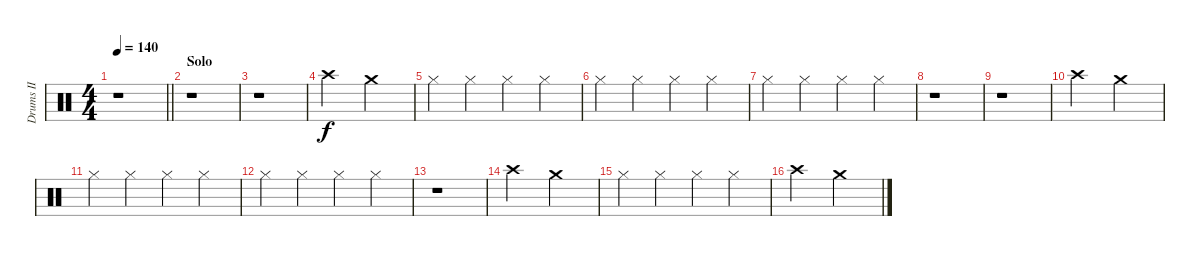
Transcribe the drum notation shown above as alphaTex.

\track ("Drums II" "Drums II") {instrument percussion}
\staff {score}
\articulation defaults
\ts (4 4)
\tempo 140
\clef neutral
\barLineRight lightlight
\ks c
r.1{dy f} |
\section ("" "Solo")
r.1 |
r.1 |
"Crash high (hit)".2 "Crash medium (hit)".2 |
"Hi-Hat (closed)".4 "Hi-Hat (closed)".4 "Hi-Hat (closed)".4 "Hi-Hat (closed)".4 |
"Hi-Hat (closed)".4 "Hi-Hat (closed)".4 "Hi-Hat (closed)".4 "Hi-Hat (closed)".4 |
"Hi-Hat (closed)".4 "Hi-Hat (closed)".4 "Hi-Hat (closed)".4 "Hi-Hat (closed)".4 |
r.1 |
r.1 |
"Crash high (hit)".2 "Crash medium (hit)".2 |
"Hi-Hat (closed)".4 "Hi-Hat (closed)".4 "Hi-Hat (closed)".4 "Hi-Hat (closed)".4 |
"Hi-Hat (closed)".4 "Hi-Hat (closed)".4 "Hi-Hat (closed)".4 "Hi-Hat (closed)".4 |
r.1 |
"Crash high (hit)".2 "Crash medium (hit)".2 |
"Hi-Hat (closed)".4 "Hi-Hat (closed)".4 "Hi-Hat (closed)".4 "Hi-Hat (closed)".4 |
"Crash high (hit)".2 "Crash medium (hit)".2
